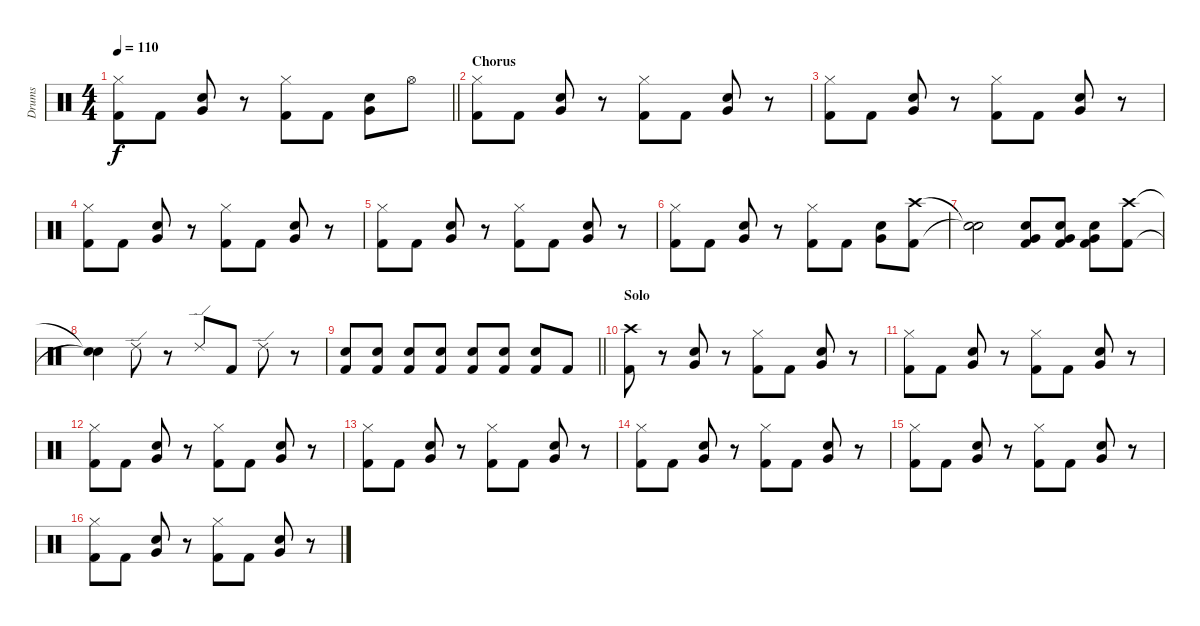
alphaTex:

\track ("Drums" "Drums") {instrument percussion}
\staff {score}
\articulation defaults
\ts (4 4)
\tempo 110
\clef neutral
\barLineRight lightlight
\ks c
("Hi-Hat (closed)" "Kick (hit) 2").8{dy f} "Kick (hit) 2".8 ("Snare (hit) 2" "Very Low Tom (hit)").8 r.8 ("Hi-Hat (closed)" "Kick (hit) 2").8 "Kick (hit) 2".8 ("Snare (hit) 2" "Very Low Tom (hit)").8 "Hi-Hat (open)".8 |
\section ("" "Chorus")
("Hi-Hat (closed)" "Kick (hit) 2").8 "Kick (hit) 2".8 ("Snare (hit) 2" "Very Low Tom (hit)").8 r.8 ("Hi-Hat (closed)" "Kick (hit) 2").8 "Kick (hit) 2".8 ("Snare (hit) 2" "Very Low Tom (hit)").8 r.8 |
("Hi-Hat (closed)" "Kick (hit) 2").8 "Kick (hit) 2".8 ("Snare (hit) 2" "Very Low Tom (hit)").8 r.8 ("Hi-Hat (closed)" "Kick (hit) 2").8 "Kick (hit) 2".8 ("Snare (hit) 2" "Very Low Tom (hit)").8 r.8 |
("Hi-Hat (closed)" "Kick (hit) 2").8 "Kick (hit) 2".8 ("Snare (hit) 2" "Very Low Tom (hit)").8 r.8 ("Hi-Hat (closed)" "Kick (hit) 2").8 "Kick (hit) 2".8 ("Snare (hit) 2" "Very Low Tom (hit)").8 r.8 |
("Hi-Hat (closed)" "Kick (hit) 2").8 "Kick (hit) 2".8 ("Snare (hit) 2" "Very Low Tom (hit)").8 r.8 ("Hi-Hat (closed)" "Kick (hit) 2").8 "Kick (hit) 2".8 ("Snare (hit) 2" "Very Low Tom (hit)").8 r.8 |
("Hi-Hat (closed)" "Kick (hit) 2").8 "Kick (hit) 2".8 ("Snare (hit) 2" "Very Low Tom (hit)").8 r.8 ("Hi-Hat (closed)" "Kick (hit) 2").8 "Kick (hit) 2".8 ("Snare (hit) 2" "Very Low Tom (hit)").8 ("Crash high (hit)" "Kick (hit) 2").8 |
("Snare (hit)"{t} "Snare (hit)"{t}).2 ("Electric Snare (hit)" "Very Low Tom (hit)" "Kick (hit) 2").8 ("Electric Snare (hit)" "Very Low Tom (hit)" "Kick (hit) 2").8 ("Electric Snare (hit)" "Very Low Tom (hit)" "Kick (hit) 2").8 ("Crash high (hit)" "Kick (hit) 2").8 |
("Snare (hit)"{t} "Snare (hit)"{t}).4 "Ride (edge) 2".8 r.8 "Ride (edge) 2".8 "Kick (hit) 2".8 "Ride (edge) 2".8 r.8 |
\barLineRight lightlight
("Snare (hit) 2" "Kick (hit) 2").8{volume 5} ("Snare (hit) 2" "Kick (hit) 2").8{volume 12} ("Snare (hit) 2" "Kick (hit) 2").8 ("Snare (hit) 2" "Kick (hit) 2").8 ("Snare (hit) 2" "Kick (hit) 2").8 ("Snare (hit) 2" "Kick (hit) 2").8 ("Snare (hit) 2" "Kick (hit) 2").8 "Kick (hit) 2".8 |
\section ("" "Solo")
("Crash high (hit)" "Kick (hit) 2").8 r.8 ("Snare (hit) 2" "Very Low Tom (hit)").8 r.8 ("Hi-Hat (closed)" "Kick (hit) 2").8 "Kick (hit) 2".8 ("Snare (hit) 2" "Very Low Tom (hit)").8 r.8 |
("Hi-Hat (closed)" "Kick (hit) 2").8 "Kick (hit) 2".8 ("Snare (hit) 2" "Very Low Tom (hit)").8 r.8 ("Hi-Hat (closed)" "Kick (hit) 2").8 "Kick (hit) 2".8 ("Snare (hit) 2" "Very Low Tom (hit)").8 r.8 |
("Hi-Hat (closed)" "Kick (hit) 2").8 "Kick (hit) 2".8 ("Snare (hit) 2" "Very Low Tom (hit)").8 r.8 ("Hi-Hat (closed)" "Kick (hit) 2").8 "Kick (hit) 2".8 ("Snare (hit) 2" "Very Low Tom (hit)").8 r.8 |
("Hi-Hat (closed)" "Kick (hit) 2").8 "Kick (hit) 2".8 ("Snare (hit) 2" "Very Low Tom (hit)").8 r.8 ("Hi-Hat (closed)" "Kick (hit) 2").8 "Kick (hit) 2".8 ("Snare (hit) 2" "Very Low Tom (hit)").8 r.8 |
("Hi-Hat (closed)" "Kick (hit) 2").8 "Kick (hit) 2".8 ("Snare (hit) 2" "Very Low Tom (hit)").8 r.8 ("Hi-Hat (closed)" "Kick (hit) 2").8 "Kick (hit) 2".8 ("Snare (hit) 2" "Very Low Tom (hit)").8 r.8 |
("Hi-Hat (closed)" "Kick (hit) 2").8 "Kick (hit) 2".8 ("Snare (hit) 2" "Very Low Tom (hit)").8 r.8 ("Hi-Hat (closed)" "Kick (hit) 2").8 "Kick (hit) 2".8 ("Snare (hit) 2" "Very Low Tom (hit)").8 r.8 |
("Hi-Hat (closed)" "Kick (hit) 2").8 "Kick (hit) 2".8 ("Snare (hit) 2" "Very Low Tom (hit)").8 r.8 ("Hi-Hat (closed)" "Kick (hit) 2").8 "Kick (hit) 2".8 ("Snare (hit) 2" "Very Low Tom (hit)").8 r.8
